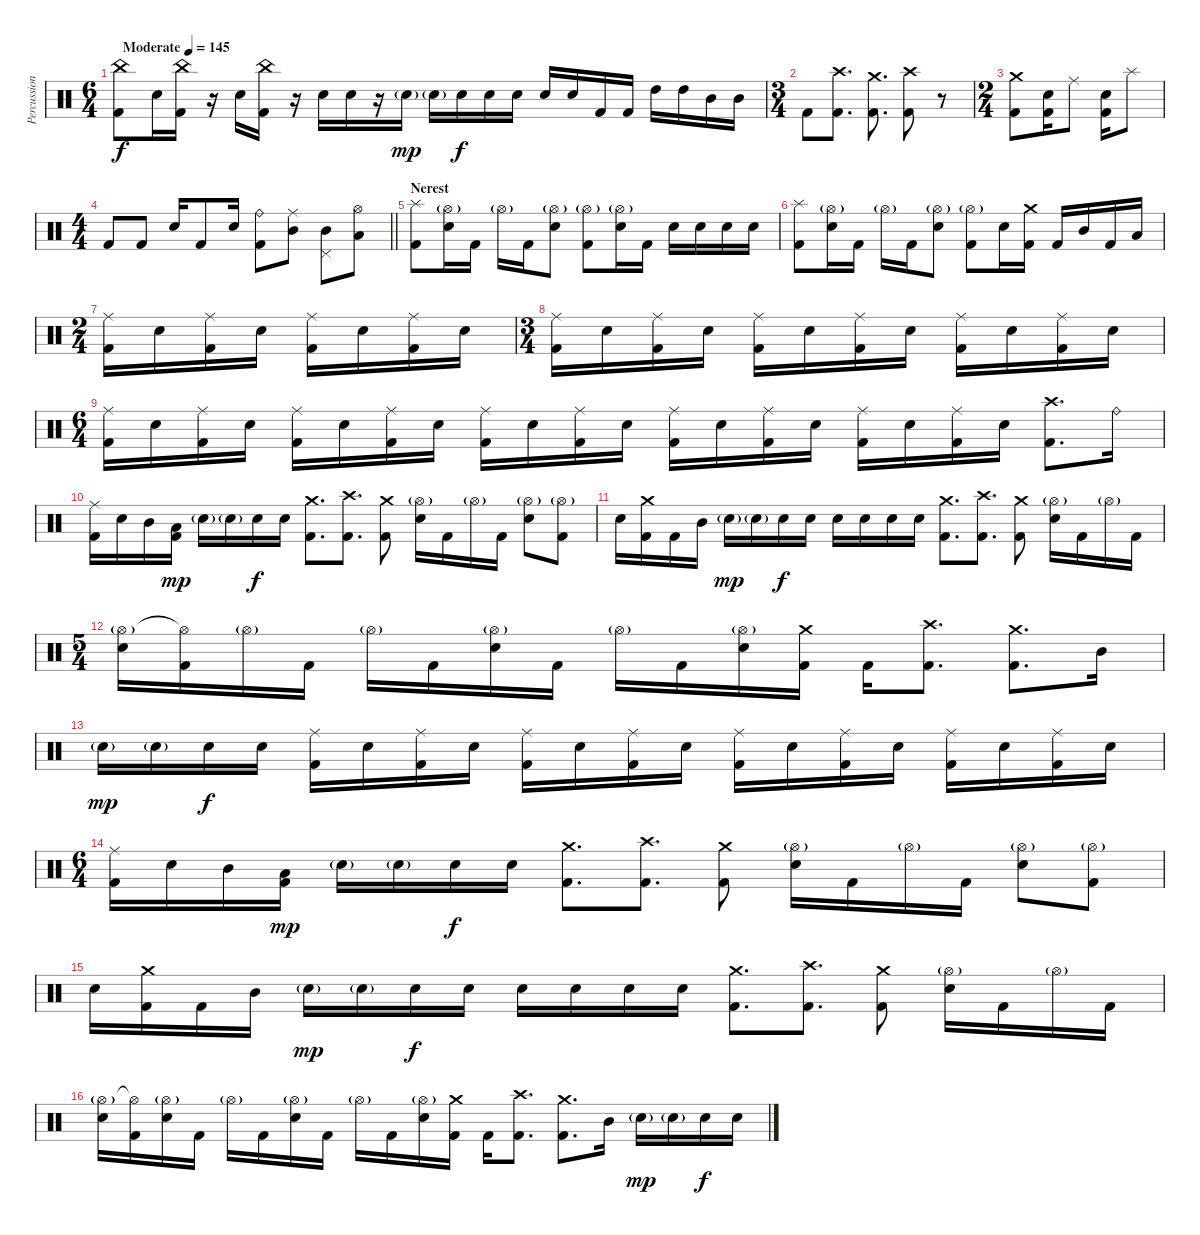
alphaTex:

\track ("Percussion" "Percussion") {instrument percussion}
\staff {score}
\articulation defaults
\ts (6 4)
\tempo (145 "Moderate")
\clef neutral
\ks c
("China (hit)" "Kick (hit) 2").8{dy f} "Electric Snare (hit)".16 ("China (hit)" "Kick (hit) 2").16 r.16 "Electric Snare (hit)".16 ("China (hit)" "Kick (hit) 2").16 r.16 "Electric Snare (hit)".16 "Electric Snare (hit)".16 r.16 "Electric Snare (hit)"{g}.16{dy mp} "Electric Snare (hit)"{g}.16 "Electric Snare (hit)".16{dy f} "Electric Snare (hit)".16 "Electric Snare (hit)".16 "Electric Snare (hit)".16 "Electric Snare (hit)".16 "Kick (hit) 2".16 "Kick (hit) 2".16 "High Tom (hit)".16 "High Tom (hit)".16 "Mid Tom (hit)".16 "Mid Tom (hit)".16 |
\ts (3 4)
"Kick (hit) 2".8 ("Crash high (hit)" "Kick (hit) 2").8{d} ("Crash medium (hit)" "Kick (hit) 2").8{d} ("Crash high (hit)" "Kick (hit) 2").8 r.8 |
\ts (2 4)
("Crash medium (hit)" "Kick (hit) 2").8 ("Electric Snare (hit)" "Kick (hit) 2").16 "Ride (middle)".8 ("Electric Snare (hit)" "Kick (hit) 2").16 "Splash (hit)".8 |
\ts (4 4)
\barLineRight lightlight "Kick (hit) 2".8 "Kick (hit) 2".8 "Electric Snare (hit)".16 "Kick (hit) 2".8 "Electric Snare (hit)".16
("Ride (bell)" "Kick (hit) 2").8 ("Ride (middle)" "Mid Tom (hit)").8 ("Pedal Hi-Hat (hit)" "Mid Tom (hit)").8 ("Hi-Hat (open)" "Low Tom (hit)").8 |
\section ("" "Nerest")
("Splash (hit)" "Kick (hit) 2").8 ("Hi-Hat (open)"{g} "Electric Snare (hit)").16 "Kick (hit) 2".16 "Hi-Hat (open)"{g}.16 "Kick (hit) 2".16 ("Hi-Hat (open)"{g} "Electric Snare (hit)").8 ("Hi-Hat (open)"{g} "Kick (hit) 2").8 ("Hi-Hat (open)"{g} "Electric Snare (hit)").16 "Kick (hit) 2".16 "Electric Snare (hit)".16 "Electric Snare (hit)".16 "Electric Snare (hit)".16 "Electric Snare (hit)".16 |
("Splash (hit)" "Kick (hit) 2").8 ("Hi-Hat (open)"{g} "Electric Snare (hit)").16 "Kick (hit) 2".16 "Hi-Hat (open)"{g}.16 "Kick (hit) 2".16 ("Hi-Hat (open)"{g} "Electric Snare (hit)").8 ("Hi-Hat (open)"{g} "Kick (hit) 2").8 "Electric Snare (hit)".16 ("Crash medium (hit)" "Kick (hit) 2").16 "Kick (hit) 2".16 "Mid Tom (hit)".16 "Kick (hit) 2".16 "Low Tom (hit)".16 |
\ts (2 4)
("Ride (middle)" "Kick (hit) 2").16 "Electric Snare (hit)".16 ("Ride (middle)" "Kick (hit) 2").16 "Electric Snare (hit)".16 ("Ride (middle)" "Kick (hit) 2").16 "Electric Snare (hit)".16 ("Ride (middle)" "Kick (hit) 2").16 "Electric Snare (hit)".16 |
\ts (3 4)
("Ride (middle)" "Kick (hit) 2").16 "Electric Snare (hit)".16 ("Ride (middle)" "Kick (hit) 2").16 "Electric Snare (hit)".16 ("Ride (middle)" "Kick (hit) 2").16 "Electric Snare (hit)".16 ("Ride (middle)" "Kick (hit) 2").16 "Electric Snare (hit)".16 ("Ride (middle)" "Kick (hit) 2").16 "Electric Snare (hit)".16 ("Ride (middle)" "Kick (hit) 2").16 "Electric Snare (hit)".16 |
\ts (6 4)
("Ride (middle)" "Kick (hit) 2").16 "Electric Snare (hit)".16 ("Ride (middle)" "Kick (hit) 2").16 "Electric Snare (hit)".16 ("Ride (middle)" "Kick (hit) 2").16 "Electric Snare (hit)".16 ("Ride (middle)" "Kick (hit) 2").16 "Electric Snare (hit)".16 ("Ride (middle)" "Kick (hit) 2").16 "Electric Snare (hit)".16 ("Ride (middle)" "Kick (hit) 2").16 "Electric Snare (hit)".16 ("Ride (middle)" "Kick (hit) 2").16 "Electric Snare (hit)".16 ("Ride (middle)" "Kick (hit) 2").16 "Electric Snare (hit)".16 ("Ride (middle)" "Kick (hit) 2").16 "Electric Snare (hit)".16 ("Ride (middle)" "Kick (hit) 2").16 "Electric Snare (hit)".16 ("Crash high (hit)" "Kick (hit) 2").8{d} "Ride (bell)".16 |
("Ride (middle)" "Kick (hit) 2").16 "Electric Snare (hit)".16 "Mid Tom (hit)".16 ("Low Tom (hit)" "Kick (hit) 2").16{dy mp} "Electric Snare (hit)"{g}.16 "Electric Snare (hit)"{g}.16 "Electric Snare (hit)".16{dy f} "Electric Snare (hit)".16 ("Crash medium (hit)" "Kick (hit) 2").8{d} ("Crash high (hit)" "Kick (hit) 2").8{d} ("Crash medium (hit)" "Kick (hit) 2").8 ("Hi-Hat (open)"{g} "Electric Snare (hit)").16 "Kick (hit) 2".16 "Hi-Hat (open)"{g}.16 "Kick (hit) 2".16 ("Hi-Hat (open)"{g} "Electric Snare (hit)").8 ("Hi-Hat (open)"{g} "Kick (hit) 2").8 |
"Electric Snare (hit)".16 ("Crash medium (hit)" "Kick (hit) 2").16 "Kick (hit) 2".16 "Mid Tom (hit)".16 "Electric Snare (hit)"{g}.16{dy mp} "Electric Snare (hit)"{g}.16 "Electric Snare (hit)".16{dy f} "Electric Snare (hit)".16 "Electric Snare (hit)".16 "Electric Snare (hit)".16 "Electric Snare (hit)".16 "Electric Snare (hit)".16 ("Crash medium (hit)" "Kick (hit) 2").8{d} ("Crash high (hit)" "Kick (hit) 2").8{d} ("Crash medium (hit)" "Kick (hit) 2").8 ("Hi-Hat (open)"{g} "Electric Snare (hit)").16 "Kick (hit) 2".16 "Hi-Hat (open)"{g}.16 "Kick (hit) 2".16 |
\ts (5 4)
("Hi-Hat (open)"{g} "Electric Snare (hit)").16 ("Hi-Hat (open)"{t} "Kick (hit) 2").16 "Hi-Hat (open)"{g}.16 "Kick (hit) 2".16 "Hi-Hat (open)"{g}.16 "Kick (hit) 2".16 ("Hi-Hat (open)"{g} "Electric Snare (hit)").16 "Kick (hit) 2".16 "Hi-Hat (open)"{g}.16 "Kick (hit) 2".16 ("Hi-Hat (open)"{g} "Electric Snare (hit)").16 ("Crash medium (hit)" "Kick (hit) 2").16 "Kick (hit) 2".16 ("Crash high (hit)" "Kick (hit) 2").8{d} ("Crash medium (hit)" "Kick (hit) 2").8{d} "Mid Tom (hit)".16 |
"Electric Snare (hit)"{g}.16{dy mp} "Electric Snare (hit)"{g}.16 "Electric Snare (hit)".16{dy f} "Electric Snare (hit)".16 ("Ride (middle)" "Kick (hit) 2").16 "Electric Snare (hit)".16 ("Ride (middle)" "Kick (hit) 2").16 "Electric Snare (hit)".16 ("Ride (middle)" "Kick (hit) 2").16 "Electric Snare (hit)".16 ("Ride (middle)" "Kick (hit) 2").16 "Electric Snare (hit)".16 ("Ride (middle)" "Kick (hit) 2").16 "Electric Snare (hit)".16 ("Ride (middle)" "Kick (hit) 2").16 "Electric Snare (hit)".16 ("Ride (middle)" "Kick (hit) 2").16 "Electric Snare (hit)".16 ("Ride (middle)" "Kick (hit) 2").16 "Electric Snare (hit)".16 |
\ts (6 4)
("Ride (middle)" "Kick (hit) 2").16 "Electric Snare (hit)".16 "Mid Tom (hit)".16 ("Low Tom (hit)" "Kick (hit) 2").16{dy mp} "Electric Snare (hit)"{g}.16 "Electric Snare (hit)"{g}.16 "Electric Snare (hit)".16{dy f} "Electric Snare (hit)".16 ("Crash medium (hit)" "Kick (hit) 2").8{d} ("Crash high (hit)" "Kick (hit) 2").8{d} ("Crash medium (hit)" "Kick (hit) 2").8 ("Hi-Hat (open)"{g} "Electric Snare (hit)").16 "Kick (hit) 2".16 "Hi-Hat (open)"{g}.16 "Kick (hit) 2".16 ("Hi-Hat (open)"{g} "Electric Snare (hit)").8 ("Hi-Hat (open)"{g} "Kick (hit) 2").8 |
"Electric Snare (hit)".16 ("Crash medium (hit)" "Kick (hit) 2").16 "Kick (hit) 2".16 "Mid Tom (hit)".16 "Electric Snare (hit)"{g}.16{dy mp} "Electric Snare (hit)"{g}.16 "Electric Snare (hit)".16{dy f} "Electric Snare (hit)".16 "Electric Snare (hit)".16 "Electric Snare (hit)".16 "Electric Snare (hit)".16 "Electric Snare (hit)".16 ("Crash medium (hit)" "Kick (hit) 2").8{d} ("Crash high (hit)" "Kick (hit) 2").8{d} ("Crash medium (hit)" "Kick (hit) 2").8 ("Hi-Hat (open)"{g} "Electric Snare (hit)").16 "Kick (hit) 2".16 "Hi-Hat (open)"{g}.16 "Kick (hit) 2".16 |
("Hi-Hat (open)"{g} "Electric Snare (hit)").16 ("Hi-Hat (open)"{t} "Kick (hit) 2").16 ("Hi-Hat (open)"{g} "Electric Snare (hit)").16 "Kick (hit) 2".16 "Hi-Hat (open)"{g}.16 "Kick (hit) 2".16 ("Hi-Hat (open)"{g} "Electric Snare (hit)").16 "Kick (hit) 2".16 "Hi-Hat (open)"{g}.16 "Kick (hit) 2".16 ("Hi-Hat (open)"{g} "Electric Snare (hit)").16 ("Crash medium (hit)" "Kick (hit) 2").16 "Kick (hit) 2".16 ("Crash high (hit)" "Kick (hit) 2").8{d} ("Crash medium (hit)" "Kick (hit) 2").8{d} "Mid Tom (hit)".16 "Electric Snare (hit)"{g}.16{dy mp} "Electric Snare (hit)"{g}.16 "Electric Snare (hit)".16{dy f} "Electric Snare (hit)".16
